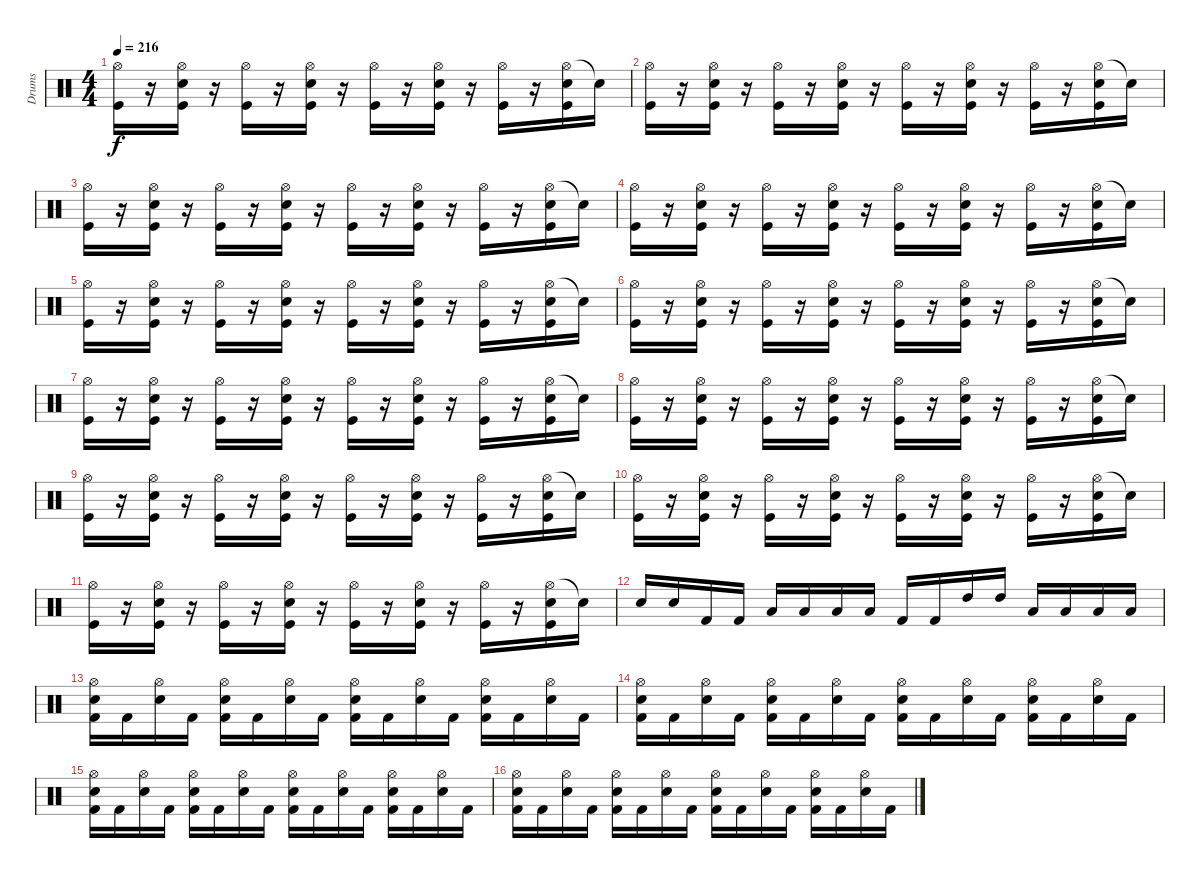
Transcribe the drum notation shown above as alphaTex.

\track ("Drums" "Drums") {instrument percussion}
\staff {score}
\articulation defaults
\ts (4 4)
\tempo 216
\clef neutral
\ks c
("Hi-Hat (open)" "Kick (hit)").16{dy f} r.16 ("Hi-Hat (open)" "Snare (hit) 2" "Kick (hit)").16 r.16 ("Hi-Hat (open)" "Kick (hit)").16 r.16 ("Hi-Hat (open)" "Snare (hit) 2" "Kick (hit)").16 r.16 ("Hi-Hat (open)" "Kick (hit)").16 r.16 ("Hi-Hat (open)" "Snare (hit) 2" "Kick (hit)").16 r.16 ("Hi-Hat (open)" "Kick (hit)").16 r.16 ("Hi-Hat (open)" "Snare (hit) 2" "Kick (hit)").16 "Snare (hit)"{t}.16 |
("Hi-Hat (open)" "Kick (hit)").16 r.16 ("Hi-Hat (open)" "Snare (hit) 2" "Kick (hit)").16 r.16 ("Hi-Hat (open)" "Kick (hit)").16 r.16 ("Hi-Hat (open)" "Snare (hit) 2" "Kick (hit)").16 r.16 ("Hi-Hat (open)" "Kick (hit)").16 r.16 ("Hi-Hat (open)" "Snare (hit) 2" "Kick (hit)").16 r.16 ("Hi-Hat (open)" "Kick (hit)").16 r.16 ("Hi-Hat (open)" "Snare (hit) 2" "Kick (hit)").16 "Snare (hit)"{t}.16 |
("Hi-Hat (open)" "Kick (hit)").16 r.16 ("Hi-Hat (open)" "Snare (hit) 2" "Kick (hit)").16 r.16 ("Hi-Hat (open)" "Kick (hit)").16 r.16 ("Hi-Hat (open)" "Snare (hit) 2" "Kick (hit)").16 r.16 ("Hi-Hat (open)" "Kick (hit)").16 r.16 ("Hi-Hat (open)" "Snare (hit) 2" "Kick (hit)").16 r.16 ("Hi-Hat (open)" "Kick (hit)").16 r.16 ("Hi-Hat (open)" "Snare (hit) 2" "Kick (hit)").16 "Snare (hit)"{t}.16 |
("Hi-Hat (open)" "Kick (hit)").16 r.16 ("Hi-Hat (open)" "Snare (hit) 2" "Kick (hit)").16 r.16 ("Hi-Hat (open)" "Kick (hit)").16 r.16 ("Hi-Hat (open)" "Snare (hit) 2" "Kick (hit)").16 r.16 ("Hi-Hat (open)" "Kick (hit)").16 r.16 ("Hi-Hat (open)" "Snare (hit) 2" "Kick (hit)").16 r.16 ("Hi-Hat (open)" "Kick (hit)").16 r.16 ("Hi-Hat (open)" "Snare (hit) 2" "Kick (hit)").16 "Snare (hit)"{t}.16 |
("Hi-Hat (open)" "Kick (hit)").16 r.16 ("Hi-Hat (open)" "Snare (hit) 2" "Kick (hit)").16 r.16 ("Hi-Hat (open)" "Kick (hit)").16 r.16 ("Hi-Hat (open)" "Snare (hit) 2" "Kick (hit)").16 r.16 ("Hi-Hat (open)" "Kick (hit)").16 r.16 ("Hi-Hat (open)" "Snare (hit) 2" "Kick (hit)").16 r.16 ("Hi-Hat (open)" "Kick (hit)").16 r.16 ("Hi-Hat (open)" "Snare (hit) 2" "Kick (hit)").16 "Snare (hit)"{t}.16 |
("Hi-Hat (open)" "Kick (hit)").16 r.16 ("Hi-Hat (open)" "Snare (hit) 2" "Kick (hit)").16 r.16 ("Hi-Hat (open)" "Kick (hit)").16 r.16 ("Hi-Hat (open)" "Snare (hit) 2" "Kick (hit)").16 r.16 ("Hi-Hat (open)" "Kick (hit)").16 r.16 ("Hi-Hat (open)" "Snare (hit) 2" "Kick (hit)").16 r.16 ("Hi-Hat (open)" "Kick (hit)").16 r.16 ("Hi-Hat (open)" "Snare (hit) 2" "Kick (hit)").16 "Snare (hit)"{t}.16 |
("Hi-Hat (open)" "Kick (hit)").16 r.16 ("Hi-Hat (open)" "Snare (hit) 2" "Kick (hit)").16 r.16 ("Hi-Hat (open)" "Kick (hit)").16 r.16 ("Hi-Hat (open)" "Snare (hit) 2" "Kick (hit)").16 r.16 ("Hi-Hat (open)" "Kick (hit)").16 r.16 ("Hi-Hat (open)" "Snare (hit) 2" "Kick (hit)").16 r.16 ("Hi-Hat (open)" "Kick (hit)").16 r.16 ("Hi-Hat (open)" "Snare (hit) 2" "Kick (hit)").16 "Snare (hit)"{t}.16 |
("Hi-Hat (open)" "Kick (hit)").16 r.16 ("Hi-Hat (open)" "Snare (hit) 2" "Kick (hit)").16 r.16 ("Hi-Hat (open)" "Kick (hit)").16 r.16 ("Hi-Hat (open)" "Snare (hit) 2" "Kick (hit)").16 r.16 ("Hi-Hat (open)" "Kick (hit)").16 r.16 ("Hi-Hat (open)" "Snare (hit) 2" "Kick (hit)").16 r.16 ("Hi-Hat (open)" "Kick (hit)").16 r.16 ("Hi-Hat (open)" "Snare (hit) 2" "Kick (hit)").16 "Snare (hit)"{t}.16 |
("Hi-Hat (open)" "Kick (hit)").16 r.16 ("Hi-Hat (open)" "Snare (hit) 2" "Kick (hit)").16 r.16 ("Hi-Hat (open)" "Kick (hit)").16 r.16 ("Hi-Hat (open)" "Snare (hit) 2" "Kick (hit)").16 r.16 ("Hi-Hat (open)" "Kick (hit)").16 r.16 ("Hi-Hat (open)" "Snare (hit) 2" "Kick (hit)").16 r.16 ("Hi-Hat (open)" "Kick (hit)").16 r.16 ("Hi-Hat (open)" "Snare (hit) 2" "Kick (hit)").16 "Snare (hit)"{t}.16 |
("Hi-Hat (open)" "Kick (hit)").16 r.16 ("Hi-Hat (open)" "Snare (hit) 2" "Kick (hit)").16 r.16 ("Hi-Hat (open)" "Kick (hit)").16 r.16 ("Hi-Hat (open)" "Snare (hit) 2" "Kick (hit)").16 r.16 ("Hi-Hat (open)" "Kick (hit)").16 r.16 ("Hi-Hat (open)" "Snare (hit) 2" "Kick (hit)").16 r.16 ("Hi-Hat (open)" "Kick (hit)").16 r.16 ("Hi-Hat (open)" "Snare (hit) 2" "Kick (hit)").16 "Snare (hit)"{t}.16 |
("Hi-Hat (open)" "Kick (hit)").16 r.16 ("Hi-Hat (open)" "Snare (hit) 2" "Kick (hit)").16 r.16 ("Hi-Hat (open)" "Kick (hit)").16 r.16 ("Hi-Hat (open)" "Snare (hit) 2" "Kick (hit)").16 r.16 ("Hi-Hat (open)" "Kick (hit)").16 r.16 ("Hi-Hat (open)" "Snare (hit) 2" "Kick (hit)").16 r.16 ("Hi-Hat (open)" "Kick (hit)").16 r.16 ("Hi-Hat (open)" "Snare (hit) 2" "Kick (hit)").16 "Snare (hit)"{t}.16 |
"Snare (hit) 2".16 "Snare (hit) 2".16 "Kick (hit) 2".16 "Kick (hit) 2".16 "Low Tom (hit)".16 "Low Tom (hit)".16 "Low Tom (hit)".16 "Low Tom (hit)".16 "Kick (hit) 2".16 "Kick (hit) 2".16 "High Tom (hit)".16 "High Tom (hit)".16 "Low Floor Tom (hit)".16 "Low Floor Tom (hit)".16 "Low Floor Tom (hit)".16 "Low Floor Tom (hit)".16 |
("Hi-Hat (open)" "Snare (hit) 2" "Kick (hit) 2").16 "Kick (hit) 2".16 ("Hi-Hat (open)" "Snare (hit) 2").16 "Kick (hit) 2".16 ("Hi-Hat (open)" "Snare (hit) 2" "Kick (hit) 2").16 "Kick (hit) 2".16 ("Hi-Hat (open)" "Snare (hit) 2").16 "Kick (hit) 2".16 ("Hi-Hat (open)" "Snare (hit) 2" "Kick (hit) 2").16 "Kick (hit) 2".16 ("Hi-Hat (open)" "Snare (hit) 2").16 "Kick (hit) 2".16 ("Hi-Hat (open)" "Snare (hit) 2" "Kick (hit) 2").16 "Kick (hit) 2".16 ("Hi-Hat (open)" "Snare (hit) 2").16 "Kick (hit) 2".16 |
("Hi-Hat (open)" "Snare (hit) 2" "Kick (hit) 2").16 "Kick (hit) 2".16 ("Hi-Hat (open)" "Snare (hit) 2").16 "Kick (hit) 2".16 ("Hi-Hat (open)" "Snare (hit) 2" "Kick (hit) 2").16 "Kick (hit) 2".16 ("Hi-Hat (open)" "Snare (hit) 2").16 "Kick (hit) 2".16 ("Hi-Hat (open)" "Snare (hit) 2" "Kick (hit) 2").16 "Kick (hit) 2".16 ("Hi-Hat (open)" "Snare (hit) 2").16 "Kick (hit) 2".16 ("Hi-Hat (open)" "Snare (hit) 2" "Kick (hit) 2").16 "Kick (hit) 2".16 ("Hi-Hat (open)" "Snare (hit) 2").16 "Kick (hit) 2".16 |
("Hi-Hat (open)" "Snare (hit) 2" "Kick (hit) 2").16 "Kick (hit) 2".16 ("Hi-Hat (open)" "Snare (hit) 2").16 "Kick (hit) 2".16 ("Hi-Hat (open)" "Snare (hit) 2" "Kick (hit) 2").16 "Kick (hit) 2".16 ("Hi-Hat (open)" "Snare (hit) 2").16 "Kick (hit) 2".16 ("Hi-Hat (open)" "Snare (hit) 2" "Kick (hit) 2").16 "Kick (hit) 2".16 ("Hi-Hat (open)" "Snare (hit) 2").16 "Kick (hit) 2".16 ("Hi-Hat (open)" "Snare (hit) 2" "Kick (hit) 2").16 "Kick (hit) 2".16 ("Hi-Hat (open)" "Snare (hit) 2").16 "Kick (hit) 2".16 |
("Hi-Hat (open)" "Snare (hit) 2" "Kick (hit) 2").16 "Kick (hit) 2".16 ("Hi-Hat (open)" "Snare (hit) 2").16 "Kick (hit) 2".16 ("Hi-Hat (open)" "Snare (hit) 2" "Kick (hit) 2").16 "Kick (hit) 2".16 ("Hi-Hat (open)" "Snare (hit) 2").16 "Kick (hit) 2".16 ("Hi-Hat (open)" "Snare (hit) 2" "Kick (hit) 2").16 "Kick (hit) 2".16 ("Hi-Hat (open)" "Snare (hit) 2").16 "Kick (hit) 2".16 ("Hi-Hat (open)" "Snare (hit) 2" "Kick (hit) 2").16 "Kick (hit) 2".16 ("Hi-Hat (open)" "Snare (hit) 2").16 "Kick (hit) 2".16
